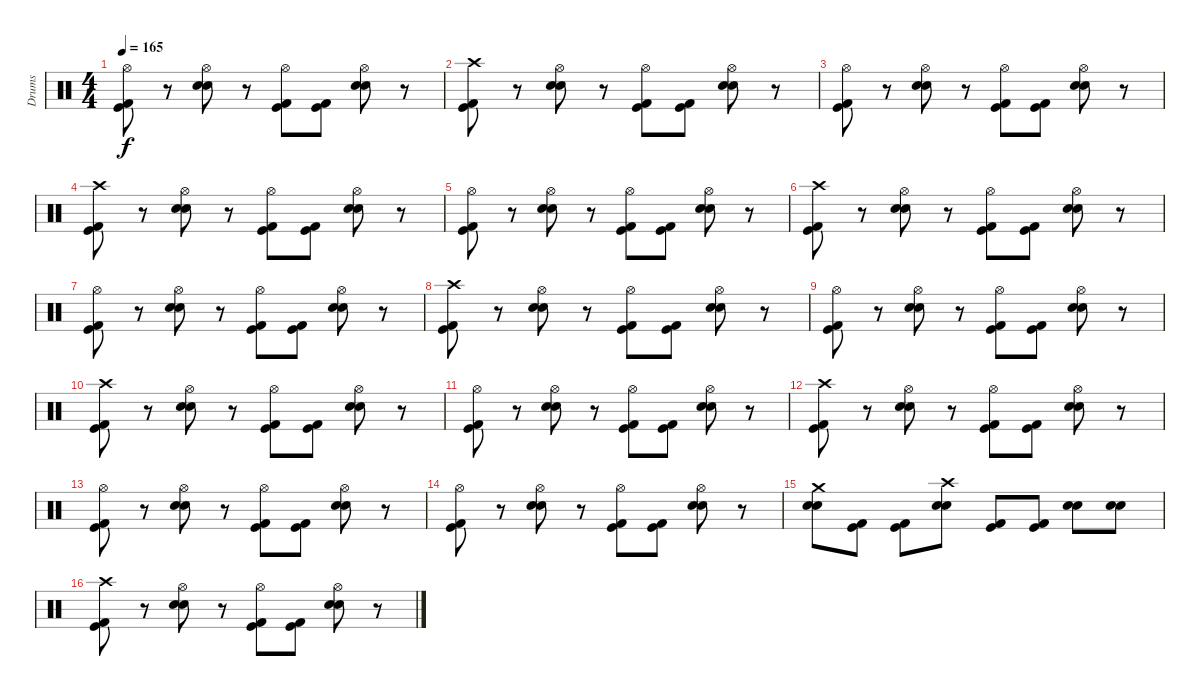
\track ("Drums" "Drums") {instrument percussion}
\staff {score}
\articulation defaults
\ts (4 4)
\tempo 165
\clef neutral
\ks c
("Hi-Hat (open)" "Kick (hit) 2" "Kick (hit)").8{dy f} r.8 ("Hi-Hat (open)" "Electric Snare (hit)" "Snare (hit) 2").8 r.8 ("Hi-Hat (open)" "Kick (hit) 2" "Kick (hit)").8 ("Kick (hit) 2" "Kick (hit)").8 ("Hi-Hat (open)" "Electric Snare (hit)" "Snare (hit) 2").8 r.8 |
("Crash high (hit)" "Kick (hit) 2" "Kick (hit)").8 r.8 ("Hi-Hat (open)" "Electric Snare (hit)" "Snare (hit) 2").8 r.8 ("Hi-Hat (open)" "Kick (hit) 2" "Kick (hit)").8 ("Kick (hit) 2" "Kick (hit)").8 ("Hi-Hat (open)" "Electric Snare (hit)" "Snare (hit) 2").8 r.8 |
("Hi-Hat (open)" "Kick (hit) 2" "Kick (hit)").8 r.8 ("Hi-Hat (open)" "Electric Snare (hit)" "Snare (hit) 2").8 r.8 ("Hi-Hat (open)" "Kick (hit) 2" "Kick (hit)").8 ("Kick (hit) 2" "Kick (hit)").8 ("Hi-Hat (open)" "Electric Snare (hit)" "Snare (hit) 2").8 r.8 |
("Crash high (hit)" "Kick (hit) 2" "Kick (hit)").8 r.8 ("Hi-Hat (open)" "Electric Snare (hit)" "Snare (hit) 2").8 r.8 ("Hi-Hat (open)" "Kick (hit) 2" "Kick (hit)").8 ("Kick (hit) 2" "Kick (hit)").8 ("Hi-Hat (open)" "Electric Snare (hit)" "Snare (hit) 2").8 r.8 |
("Hi-Hat (open)" "Kick (hit) 2" "Kick (hit)").8 r.8 ("Hi-Hat (open)" "Electric Snare (hit)" "Snare (hit) 2").8 r.8 ("Hi-Hat (open)" "Kick (hit) 2" "Kick (hit)").8 ("Kick (hit) 2" "Kick (hit)").8 ("Hi-Hat (open)" "Electric Snare (hit)" "Snare (hit) 2").8 r.8 |
("Crash high (hit)" "Kick (hit) 2" "Kick (hit)").8 r.8 ("Hi-Hat (open)" "Electric Snare (hit)" "Snare (hit) 2").8 r.8 ("Hi-Hat (open)" "Kick (hit) 2" "Kick (hit)").8 ("Kick (hit) 2" "Kick (hit)").8 ("Hi-Hat (open)" "Electric Snare (hit)" "Snare (hit) 2").8 r.8 |
("Hi-Hat (open)" "Kick (hit) 2" "Kick (hit)").8 r.8 ("Hi-Hat (open)" "Electric Snare (hit)" "Snare (hit) 2").8 r.8 ("Hi-Hat (open)" "Kick (hit) 2" "Kick (hit)").8 ("Kick (hit) 2" "Kick (hit)").8 ("Hi-Hat (open)" "Electric Snare (hit)" "Snare (hit) 2").8 r.8 |
("Crash high (hit)" "Kick (hit) 2" "Kick (hit)").8 r.8 ("Hi-Hat (open)" "Electric Snare (hit)" "Snare (hit) 2").8 r.8 ("Hi-Hat (open)" "Kick (hit) 2" "Kick (hit)").8 ("Kick (hit) 2" "Kick (hit)").8 ("Hi-Hat (open)" "Electric Snare (hit)" "Snare (hit) 2").8 r.8 |
("Hi-Hat (open)" "Kick (hit) 2" "Kick (hit)").8 r.8 ("Hi-Hat (open)" "Electric Snare (hit)" "Snare (hit) 2").8 r.8 ("Hi-Hat (open)" "Kick (hit) 2" "Kick (hit)").8 ("Kick (hit) 2" "Kick (hit)").8 ("Hi-Hat (open)" "Electric Snare (hit)" "Snare (hit) 2").8 r.8 |
("Crash high (hit)" "Kick (hit) 2" "Kick (hit)").8 r.8 ("Hi-Hat (open)" "Electric Snare (hit)" "Snare (hit) 2").8 r.8 ("Hi-Hat (open)" "Kick (hit) 2" "Kick (hit)").8 ("Kick (hit) 2" "Kick (hit)").8 ("Hi-Hat (open)" "Electric Snare (hit)" "Snare (hit) 2").8 r.8 |
("Hi-Hat (open)" "Kick (hit) 2" "Kick (hit)").8 r.8 ("Hi-Hat (open)" "Electric Snare (hit)" "Snare (hit) 2").8 r.8 ("Hi-Hat (open)" "Kick (hit) 2" "Kick (hit)").8 ("Kick (hit) 2" "Kick (hit)").8 ("Hi-Hat (open)" "Electric Snare (hit)" "Snare (hit) 2").8 r.8 |
("Crash high (hit)" "Kick (hit) 2" "Kick (hit)").8 r.8 ("Hi-Hat (open)" "Electric Snare (hit)" "Snare (hit) 2").8 r.8 ("Hi-Hat (open)" "Kick (hit) 2" "Kick (hit)").8 ("Kick (hit) 2" "Kick (hit)").8 ("Hi-Hat (open)" "Electric Snare (hit)" "Snare (hit) 2").8 r.8 |
("Hi-Hat (open)" "Kick (hit) 2" "Kick (hit)").8 r.8 ("Hi-Hat (open)" "Electric Snare (hit)" "Snare (hit) 2").8 r.8 ("Hi-Hat (open)" "Kick (hit) 2" "Kick (hit)").8 ("Kick (hit) 2" "Kick (hit)").8 ("Hi-Hat (open)" "Electric Snare (hit)" "Snare (hit) 2").8 r.8 |
("Hi-Hat (open)" "Kick (hit) 2" "Kick (hit)").8 r.8 ("Hi-Hat (open)" "Electric Snare (hit)" "Snare (hit) 2").8 r.8 ("Hi-Hat (open)" "Kick (hit) 2" "Kick (hit)").8 ("Kick (hit) 2" "Kick (hit)").8 ("Hi-Hat (open)" "Electric Snare (hit)" "Snare (hit) 2").8 r.8 |
("Electric Snare (hit)" "Snare (hit) 2" "Crash medium (hit)").8 ("Kick (hit) 2" "Kick (hit)").8 ("Kick (hit) 2" "Kick (hit)").8 ("Electric Snare (hit)" "Snare (hit) 2" "Crash high (hit)").8 ("Kick (hit) 2" "Kick (hit)").8 ("Kick (hit) 2" "Kick (hit)").8 ("Electric Snare (hit)" "Snare (hit) 2").8 ("Electric Snare (hit)" "Snare (hit) 2").8 |
("Crash high (hit)" "Kick (hit) 2" "Kick (hit)").8 r.8 ("Hi-Hat (open)" "Electric Snare (hit)" "Snare (hit) 2").8 r.8 ("Hi-Hat (open)" "Kick (hit) 2" "Kick (hit)").8 ("Kick (hit) 2" "Kick (hit)").8 ("Hi-Hat (open)" "Electric Snare (hit)" "Snare (hit) 2").8 r.8
